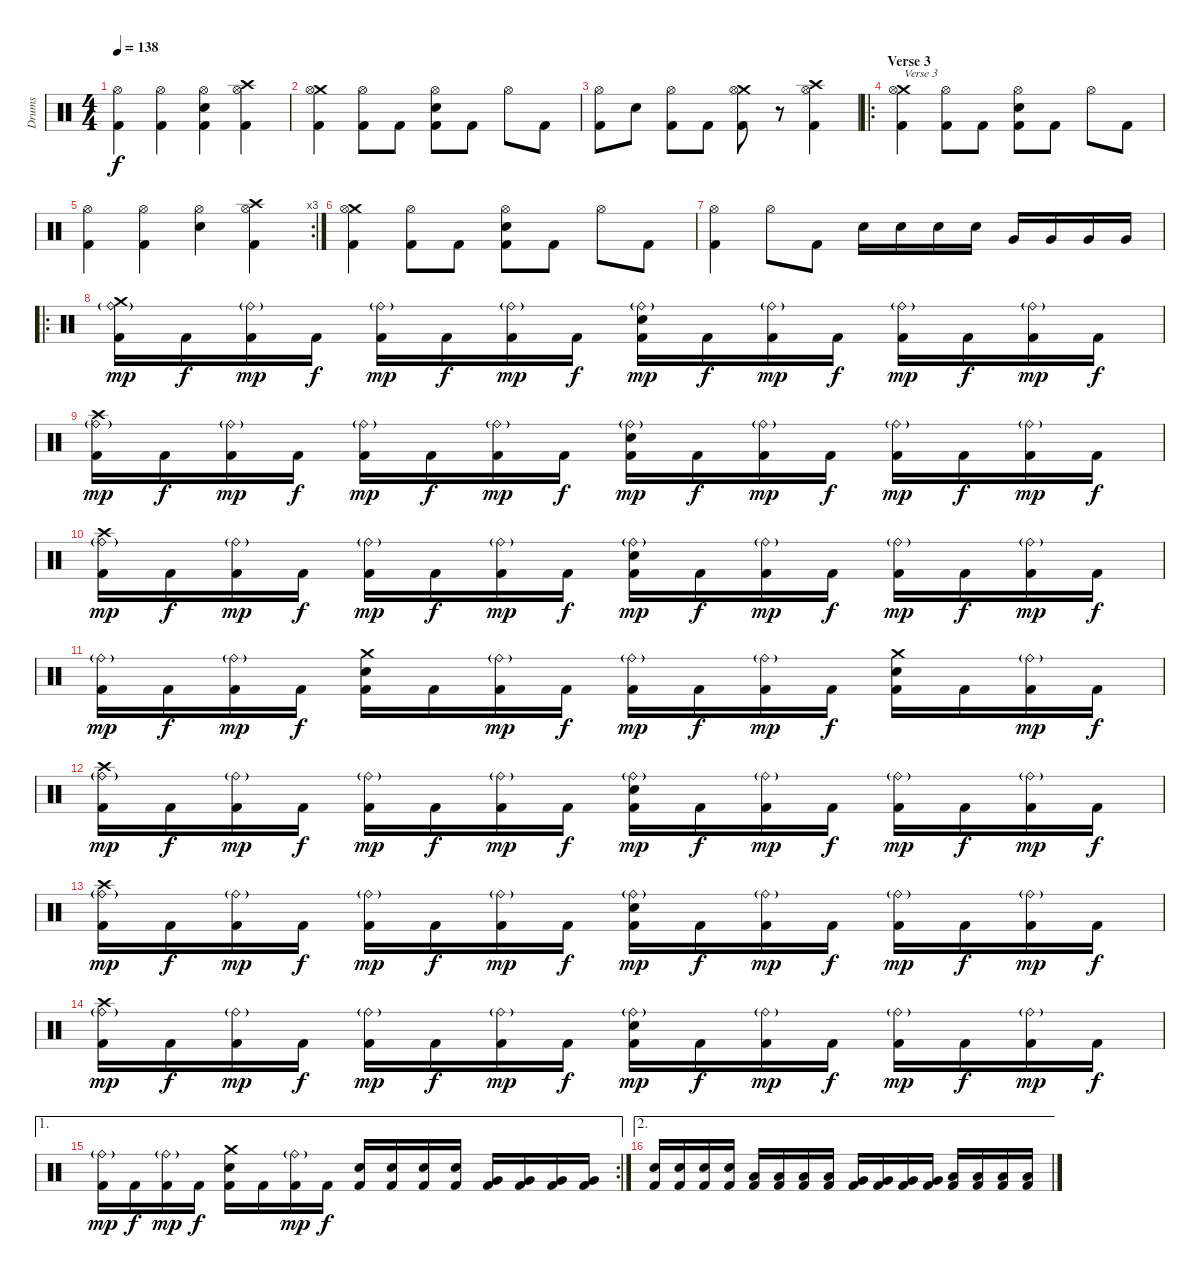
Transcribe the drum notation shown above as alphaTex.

\track ("Drums" "Drums") {instrument percussion}
\staff {score}
\articulation defaults
\ts (4 4)
\tempo 138
\clef neutral
\ks c
("Hi-Hat (open)" "Kick (hit) 2").4{dy f} ("Hi-Hat (open)" "Kick (hit) 2").4 ("Hi-Hat (open)" "Electric Snare (hit)" "Kick (hit) 2").4 ("Crash high (hit)" "Hi-Hat (open)" "Kick (hit) 2").4 |
("Crash medium (hit)" "Hi-Hat (open)" "Kick (hit) 2").4 ("Hi-Hat (open)" "Kick (hit) 2").8 "Kick (hit) 2".8 ("Hi-Hat (open)" "Electric Snare (hit)" "Kick (hit) 2").8 "Kick (hit) 2".8 "Hi-Hat (open)".8 "Kick (hit) 2".8 |
("Hi-Hat (open)" "Kick (hit) 2").8 "Electric Snare (hit)".8 ("Hi-Hat (open)" "Kick (hit) 2").8 "Kick (hit) 2".8 ("Crash medium (hit)" "Hi-Hat (open)" "Kick (hit) 2").8 r.8 ("Crash high (hit)" "Hi-Hat (open)" "Kick (hit) 2").4 |
\ro
\section ("" "Verse 3")
("Crash medium (hit)" "Hi-Hat (open)" "Kick (hit) 2").4{txt "Verse 3"} ("Hi-Hat (open)" "Kick (hit) 2").8 "Kick (hit) 2".8 ("Hi-Hat (open)" "Electric Snare (hit)" "Kick (hit) 2").8 "Kick (hit) 2".8 "Hi-Hat (open)".8 "Kick (hit) 2".8 |
\rc 3
("Hi-Hat (open)" "Kick (hit) 2").4 ("Hi-Hat (open)" "Kick (hit) 2").4 ("Hi-Hat (open)" "Electric Snare (hit)").4 ("Crash high (hit)" "Hi-Hat (open)" "Kick (hit) 2").4 |
("Crash medium (hit)" "Hi-Hat (open)" "Kick (hit) 2").4 ("Hi-Hat (open)" "Kick (hit) 2").8 "Kick (hit) 2".8 ("Hi-Hat (open)" "Electric Snare (hit)" "Kick (hit) 2").8 "Kick (hit) 2".8 "Hi-Hat (open)".8 "Kick (hit) 2".8 |
("Hi-Hat (open)" "Kick (hit) 2").4 "Hi-Hat (open)".8 "Kick (hit) 2".8 "Electric Snare (hit)".16 "Electric Snare (hit)".16 "Electric Snare (hit)".16 "Electric Snare (hit)".16 "Very Low Tom (hit)".16 "Very Low Tom (hit)".16 "Very Low Tom (hit)".16 "Very Low Tom (hit)".16 |
\ro
("Crash medium (hit)" "Ride (bell)"{g} "Kick (hit) 2").16{dy mp} "Kick (hit) 2".16{dy f} ("Ride (bell)"{g} "Kick (hit) 2").16{dy mp} "Kick (hit) 2".16{dy f} ("Ride (bell)"{g} "Kick (hit) 2").16{dy mp} "Kick (hit) 2".16{dy f} ("Ride (bell)"{g} "Kick (hit) 2").16{dy mp} "Kick (hit) 2".16{dy f} ("Ride (bell)"{g} "Electric Snare (hit)" "Kick (hit) 2").16{dy mp} "Kick (hit) 2".16{dy f} ("Ride (bell)"{g} "Kick (hit) 2").16{dy mp} "Kick (hit) 2".16{dy f} ("Ride (bell)"{g} "Kick (hit) 2").16{dy mp} "Kick (hit) 2".16{dy f} ("Ride (bell)"{g} "Kick (hit) 2").16{dy mp} "Kick (hit) 2".16{dy f} |
("Crash high (hit)" "Ride (bell)"{g} "Kick (hit) 2").16{dy mp} "Kick (hit) 2".16{dy f} ("Ride (bell)"{g} "Kick (hit) 2").16{dy mp} "Kick (hit) 2".16{dy f} ("Ride (bell)"{g} "Kick (hit) 2").16{dy mp} "Kick (hit) 2".16{dy f} ("Ride (bell)"{g} "Kick (hit) 2").16{dy mp} "Kick (hit) 2".16{dy f} ("Ride (bell)"{g} "Electric Snare (hit)" "Kick (hit) 2").16{dy mp} "Kick (hit) 2".16{dy f} ("Ride (bell)"{g} "Kick (hit) 2").16{dy mp} "Kick (hit) 2".16{dy f} ("Ride (bell)"{g} "Kick (hit) 2").16{dy mp} "Kick (hit) 2".16{dy f} ("Ride (bell)"{g} "Kick (hit) 2").16{dy mp} "Kick (hit) 2".16{dy f} |
("Crash high (hit)" "Ride (bell)"{g} "Kick (hit) 2").16{dy mp} "Kick (hit) 2".16{dy f} ("Ride (bell)"{g} "Kick (hit) 2").16{dy mp} "Kick (hit) 2".16{dy f} ("Ride (bell)"{g} "Kick (hit) 2").16{dy mp} "Kick (hit) 2".16{dy f} ("Ride (bell)"{g} "Kick (hit) 2").16{dy mp} "Kick (hit) 2".16{dy f} ("Ride (bell)"{g} "Electric Snare (hit)" "Kick (hit) 2").16{dy mp} "Kick (hit) 2".16{dy f} ("Ride (bell)"{g} "Kick (hit) 2").16{dy mp} "Kick (hit) 2".16{dy f} ("Ride (bell)"{g} "Kick (hit) 2").16{dy mp} "Kick (hit) 2".16{dy f} ("Ride (bell)"{g} "Kick (hit) 2").16{dy mp} "Kick (hit) 2".16{dy f} |
("Ride (bell)"{g} "Kick (hit) 2").16{dy mp} "Kick (hit) 2".16{dy f} ("Ride (bell)"{g} "Kick (hit) 2").16{dy mp} "Kick (hit) 2".16{dy f} ("Crash medium (hit)" "Electric Snare (hit)" "Kick (hit) 2").16 "Kick (hit) 2".16 ("Ride (bell)"{g} "Kick (hit) 2").16{dy mp} "Kick (hit) 2".16{dy f} ("Ride (bell)"{g} "Kick (hit) 2").16{dy mp} "Kick (hit) 2".16{dy f} ("Ride (bell)"{g} "Kick (hit) 2").16{dy mp} "Kick (hit) 2".16{dy f} ("Crash medium (hit)" "Electric Snare (hit)" "Kick (hit) 2").16 "Kick (hit) 2".16 ("Ride (bell)"{g} "Kick (hit) 2").16{dy mp} "Kick (hit) 2".16{dy f} |
("Crash high (hit)" "Ride (bell)"{g} "Kick (hit) 2").16{dy mp} "Kick (hit) 2".16{dy f} ("Ride (bell)"{g} "Kick (hit) 2").16{dy mp} "Kick (hit) 2".16{dy f} ("Ride (bell)"{g} "Kick (hit) 2").16{dy mp} "Kick (hit) 2".16{dy f} ("Ride (bell)"{g} "Kick (hit) 2").16{dy mp} "Kick (hit) 2".16{dy f} ("Ride (bell)"{g} "Electric Snare (hit)" "Kick (hit) 2").16{dy mp} "Kick (hit) 2".16{dy f} ("Ride (bell)"{g} "Kick (hit) 2").16{dy mp} "Kick (hit) 2".16{dy f} ("Ride (bell)"{g} "Kick (hit) 2").16{dy mp} "Kick (hit) 2".16{dy f} ("Ride (bell)"{g} "Kick (hit) 2").16{dy mp} "Kick (hit) 2".16{dy f} |
("Crash high (hit)" "Ride (bell)"{g} "Kick (hit) 2").16{dy mp} "Kick (hit) 2".16{dy f} ("Ride (bell)"{g} "Kick (hit) 2").16{dy mp} "Kick (hit) 2".16{dy f} ("Ride (bell)"{g} "Kick (hit) 2").16{dy mp} "Kick (hit) 2".16{dy f} ("Ride (bell)"{g} "Kick (hit) 2").16{dy mp} "Kick (hit) 2".16{dy f} ("Ride (bell)"{g} "Electric Snare (hit)" "Kick (hit) 2").16{dy mp} "Kick (hit) 2".16{dy f} ("Ride (bell)"{g} "Kick (hit) 2").16{dy mp} "Kick (hit) 2".16{dy f} ("Ride (bell)"{g} "Kick (hit) 2").16{dy mp} "Kick (hit) 2".16{dy f} ("Ride (bell)"{g} "Kick (hit) 2").16{dy mp} "Kick (hit) 2".16{dy f} |
("Crash high (hit)" "Ride (bell)"{g} "Kick (hit) 2").16{dy mp} "Kick (hit) 2".16{dy f} ("Ride (bell)"{g} "Kick (hit) 2").16{dy mp} "Kick (hit) 2".16{dy f} ("Ride (bell)"{g} "Kick (hit) 2").16{dy mp} "Kick (hit) 2".16{dy f} ("Ride (bell)"{g} "Kick (hit) 2").16{dy mp} "Kick (hit) 2".16{dy f} ("Ride (bell)"{g} "Electric Snare (hit)" "Kick (hit) 2").16{dy mp} "Kick (hit) 2".16{dy f} ("Ride (bell)"{g} "Kick (hit) 2").16{dy mp} "Kick (hit) 2".16{dy f} ("Ride (bell)"{g} "Kick (hit) 2").16{dy mp} "Kick (hit) 2".16{dy f} ("Ride (bell)"{g} "Kick (hit) 2").16{dy mp} "Kick (hit) 2".16{dy f} |
\ae 1
\rc 2
("Ride (bell)"{g} "Kick (hit) 2").16{dy mp} "Kick (hit) 2".16{dy f} ("Ride (bell)"{g} "Kick (hit) 2").16{dy mp} "Kick (hit) 2".16{dy f} ("Crash medium (hit)" "Electric Snare (hit)" "Kick (hit) 2").16 "Kick (hit) 2".16 ("Ride (bell)"{g} "Kick (hit) 2").16{dy mp} "Kick (hit) 2".16{dy f} ("Electric Snare (hit)" "Kick (hit) 2").16 ("Electric Snare (hit)" "Kick (hit) 2").16 ("Electric Snare (hit)" "Kick (hit) 2").16 ("Electric Snare (hit)" "Kick (hit) 2").16 ("Very Low Tom (hit)" "Kick (hit) 2").16 ("Very Low Tom (hit)" "Kick (hit) 2").16 ("Very Low Tom (hit)" "Kick (hit) 2").16 ("Very Low Tom (hit)" "Kick (hit) 2").16 |
\ae 2
("Electric Snare (hit)" "Kick (hit) 2").16 ("Electric Snare (hit)" "Kick (hit) 2").16 ("Electric Snare (hit)" "Kick (hit) 2").16 ("Electric Snare (hit)" "Kick (hit) 2").16 ("Low Floor Tom (hit)" "Kick (hit) 2").16 ("Low Floor Tom (hit)" "Kick (hit) 2").16 ("Low Floor Tom (hit)" "Kick (hit) 2").16 ("Low Floor Tom (hit)" "Kick (hit) 2").16 ("Very Low Tom (hit)" "Kick (hit) 2").16 ("Very Low Tom (hit)" "Kick (hit) 2").16 ("Very Low Tom (hit)" "Kick (hit) 2").16 ("Very Low Tom (hit)" "Kick (hit) 2").16 ("Low Tom (hit)" "Kick (hit) 2").16 ("Low Tom (hit)" "Kick (hit) 2").16 ("Low Tom (hit)" "Kick (hit) 2").16 ("Low Tom (hit)" "Kick (hit) 2").16
